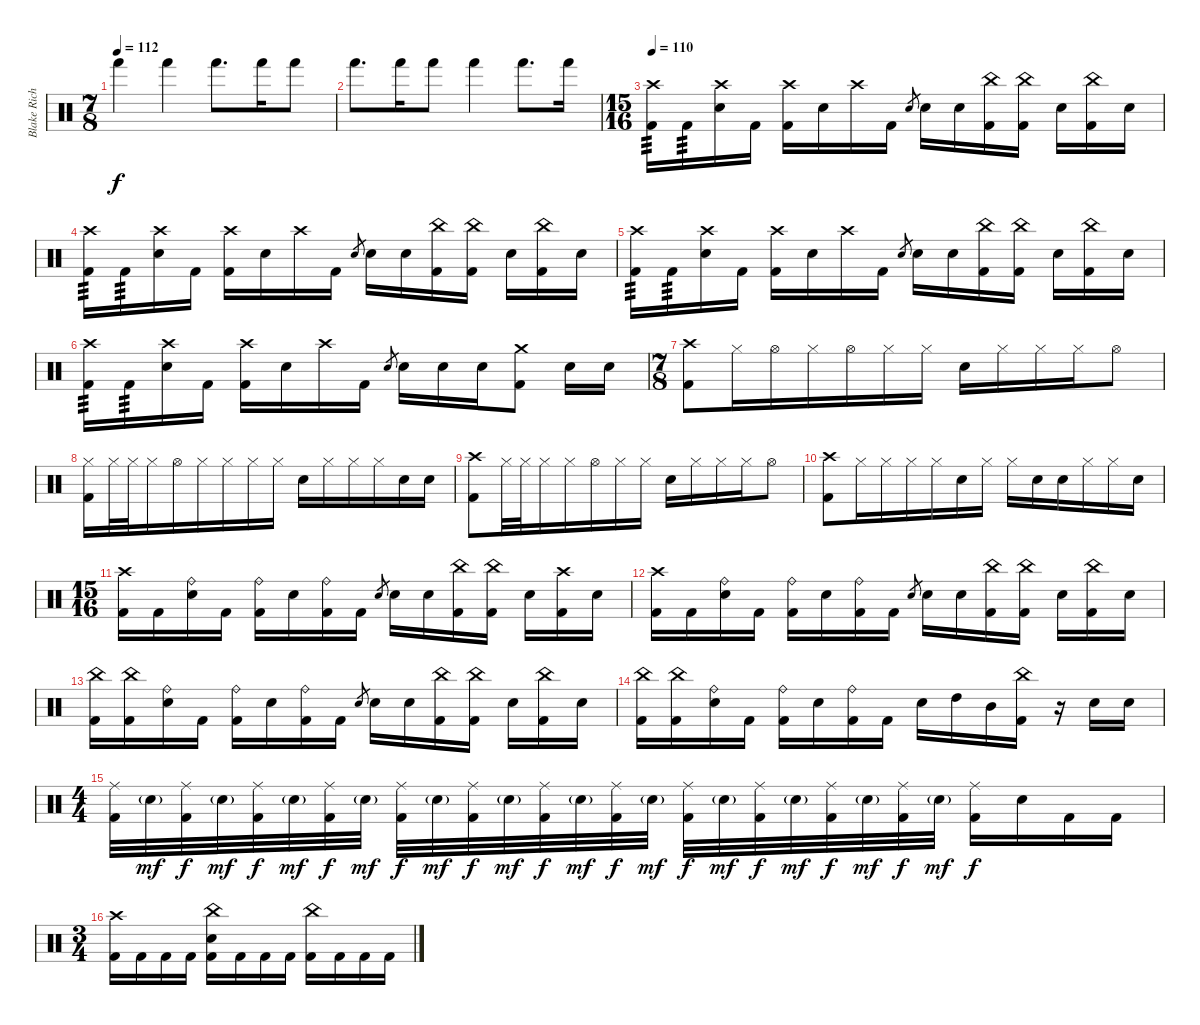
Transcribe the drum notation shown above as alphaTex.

\track ("Blake Richardson" "Blake Rich") {instrument percussion}
\staff {score}
\articulation defaults
\ts (7 8)
\tempo 112
\clef neutral
\ks c "Hand (hit)".4{dy f} "Hand (hit)".4 "Hand (hit)".8{d} "Hand (hit)".16 "Hand (hit)".8
|
"Hand (hit)".8{d} "Hand (hit)".16 "Hand (hit)".8 "Hand (hit)".4 "Hand (hit)".8{d} "Hand (hit)".16 |
\ts (15 16)
\tempo 110
("Crash high (hit)" "Kick (hit) 2").16{tp 3} "Kick (hit) 2".16{tp 3} ("Crash high (hit)" "Electric Snare (hit)").16 "Kick (hit) 2".16 ("Crash high (hit)" "Kick (hit) 2").16 "Electric Snare (hit)".16 "Crash high (hit)".16 "Kick (hit) 2".16 "Electric Snare (hit)".8{gr} "Electric Snare (hit)".16 "Electric Snare (hit)".16 ("China (hit)" "Kick (hit) 2").16 ("China (hit)" "Kick (hit) 2").16 "Electric Snare (hit)".16 ("China (hit)" "Kick (hit) 2").16 "Electric Snare (hit)".16 |
("Crash high (hit)" "Kick (hit) 2").16{tp 3} "Kick (hit) 2".16{tp 3} ("Crash high (hit)" "Electric Snare (hit)").16 "Kick (hit) 2".16 ("Crash high (hit)" "Kick (hit) 2").16 "Electric Snare (hit)".16 "Crash high (hit)".16 "Kick (hit) 2".16 "Electric Snare (hit)".8{gr} "Electric Snare (hit)".16 "Electric Snare (hit)".16 ("China (hit)" "Kick (hit) 2").16 ("China (hit)" "Kick (hit) 2").16 "Electric Snare (hit)".16 ("China (hit)" "Kick (hit) 2").16 "Electric Snare (hit)".16 |
("Crash high (hit)" "Kick (hit) 2").16{tp 3} "Kick (hit) 2".16{tp 3} ("Crash high (hit)" "Electric Snare (hit)").16 "Kick (hit) 2".16 ("Crash high (hit)" "Kick (hit) 2").16 "Electric Snare (hit)".16 "Crash high (hit)".16 "Kick (hit) 2".16 "Electric Snare (hit)".8{gr} "Electric Snare (hit)".16 "Electric Snare (hit)".16 ("China (hit)" "Kick (hit) 2").16 ("China (hit)" "Kick (hit) 2").16 "Electric Snare (hit)".16 ("China (hit)" "Kick (hit) 2").16 "Electric Snare (hit)".16 |
("Crash high (hit)" "Kick (hit) 2").16{tp 3} "Kick (hit) 2".16{tp 3} ("Crash high (hit)" "Electric Snare (hit)").16 "Kick (hit) 2".16 ("Crash high (hit)" "Kick (hit) 2").16 "Electric Snare (hit)".16 "Crash high (hit)".16 "Kick (hit) 2".16 "Electric Snare (hit)".8{gr} "Electric Snare (hit)".16 "Electric Snare (hit)".16 "Electric Snare (hit)".16 ("Crash medium (hit)" "Kick (hit) 2").8 "Electric Snare (hit)".16 "Electric Snare (hit)".16 |
\ts (7 8)
("Crash high (hit)" "Kick (hit) 2").8 "Hi-Hat (closed)".16 "Hi-Hat (open)".16 "Hi-Hat (closed)".16 "Hi-Hat (open)".16 "Hi-Hat (closed)".16 "Hi-Hat (closed)".16 "Electric Snare (hit)".16 "Hi-Hat (closed)".16 "Hi-Hat (closed)".16 "Hi-Hat (closed)".16 "Hi-Hat (open)".8 |
("Hi-Hat (closed)" "Kick (hit) 2").16 "Hi-Hat (closed)".32 "Hi-Hat (closed)".32 "Hi-Hat (closed)".16 "Hi-Hat (open)".16 "Hi-Hat (closed)".16 "Hi-Hat (closed)".16 "Hi-Hat (closed)".16 "Hi-Hat (closed)".16 "Electric Snare (hit)".16 "Hi-Hat (closed)".16 "Hi-Hat (closed)".16 "Hi-Hat (closed)".16 "Electric Snare (hit)".16 "Electric Snare (hit)".16 |
("Crash high (hit)" "Kick (hit) 2").8 "Hi-Hat (closed)".32 "Hi-Hat (closed)".32 "Hi-Hat (closed)".16 "Hi-Hat (closed)".16 "Hi-Hat (open)".16 "Hi-Hat (closed)".16 "Hi-Hat (closed)".16 "Electric Snare (hit)".16 "Hi-Hat (closed)".16 "Hi-Hat (closed)".16 "Hi-Hat (closed)".16 "Hi-Hat (open)".8 |
("Crash high (hit)" "Kick (hit) 2").8 "Hi-Hat (closed)".16 "Hi-Hat (closed)".16 "Hi-Hat (closed)".16 "Hi-Hat (closed)".16 "Electric Snare (hit)".16 "Hi-Hat (closed)".16 "Hi-Hat (closed)".16 "Electric Snare (hit)".16 "Electric Snare (hit)".16 "Hi-Hat (closed)".16 "Hi-Hat (closed)".16 "Electric Snare (hit)".16 |
\ts (15 16)
("Crash high (hit)" "Kick (hit) 2").16 "Kick (hit) 2".16 ("Ride (bell)" "Electric Snare (hit)").16 "Kick (hit) 2".16 ("Ride (bell)" "Kick (hit) 2").16 "Electric Snare (hit)".16 ("Ride (bell)" "Kick (hit) 2").16 "Kick (hit) 2".16 "Electric Snare (hit)".8{gr} "Electric Snare (hit)".16 "Electric Snare (hit)".16 ("China (hit)" "Kick (hit) 2").16 ("China (hit)" "Kick (hit) 2").16 "Electric Snare (hit)".16 ("Crash high (hit)" "Kick (hit) 2").16 "Electric Snare (hit)".16 |
("Crash high (hit)" "Kick (hit) 2").16 "Kick (hit) 2".16 ("Ride (bell)" "Electric Snare (hit)").16 "Kick (hit) 2".16 ("Ride (bell)" "Kick (hit) 2").16 "Electric Snare (hit)".16 ("Ride (bell)" "Kick (hit) 2").16 "Kick (hit) 2".16 "Electric Snare (hit)".8{gr} "Electric Snare (hit)".16 "Electric Snare (hit)".16 ("China (hit)" "Kick (hit) 2").16 ("China (hit)" "Kick (hit) 2").16 "Electric Snare (hit)".16 ("China (hit)" "Kick (hit) 2").16 "Electric Snare (hit)".16 |
("China (hit)" "Kick (hit) 2").16 ("China (hit)" "Kick (hit) 2").16 ("Ride (bell)" "Electric Snare (hit)").16 "Kick (hit) 2".16 ("Ride (bell)" "Kick (hit) 2").16 "Electric Snare (hit)".16 ("Ride (bell)" "Kick (hit) 2").16 "Kick (hit) 2".16 "Electric Snare (hit)".8{gr} "Electric Snare (hit)".16 "Electric Snare (hit)".16 ("China (hit)" "Kick (hit) 2").16 ("China (hit)" "Kick (hit) 2").16 "Electric Snare (hit)".16 ("China (hit)" "Kick (hit) 2").16 "Electric Snare (hit)".16 |
("China (hit)" "Kick (hit) 2").16 ("China (hit)" "Kick (hit) 2").16 ("Ride (bell)" "Electric Snare (hit)").16 "Kick (hit) 2".16 ("Ride (bell)" "Kick (hit) 2").16 "Electric Snare (hit)".16 ("Ride (bell)" "Kick (hit) 2").16 "Kick (hit) 2".16 "Electric Snare (hit)".16 "High Tom (hit)".16 "Mid Tom (hit)".16 ("China (hit)" "Kick (hit) 2").16 r.16 "Electric Snare (hit)".16 "Electric Snare (hit)".16 |
\ts (4 4)
("Ride (middle)" "Kick (hit) 2").32 "Electric Snare (hit)"{g}.32{dy mf} ("Ride (middle)" "Kick (hit) 2").32{dy f} "Electric Snare (hit)"{g}.32{dy mf} ("Ride (middle)" "Kick (hit) 2").32{dy f} "Electric Snare (hit)"{g}.32{dy mf} ("Ride (middle)" "Kick (hit) 2").32{dy f} "Electric Snare (hit)"{g}.32{dy mf} ("Ride (middle)" "Kick (hit) 2").32{dy f} "Electric Snare (hit)"{g}.32{dy mf} ("Ride (middle)" "Kick (hit) 2").32{dy f} "Electric Snare (hit)"{g}.32{dy mf} ("Ride (middle)" "Kick (hit) 2").32{dy f} "Electric Snare (hit)"{g}.32{dy mf} ("Ride (middle)" "Kick (hit) 2").32{dy f} "Electric Snare (hit)"{g}.32{dy mf} ("Ride (middle)" "Kick (hit) 2").32{dy f} "Electric Snare (hit)"{g}.32{dy mf} ("Ride (middle)" "Kick (hit) 2").32{dy f} "Electric Snare (hit)"{g}.32{dy mf} ("Ride (middle)" "Kick (hit) 2").32{dy f} "Electric Snare (hit)"{g}.32{dy mf} ("Ride (middle)" "Kick (hit) 2").32{dy f} "Electric Snare (hit)"{g}.32{dy mf} ("Ride (middle)" "Kick (hit) 2").16{dy f} "Electric Snare (hit)".16 "Kick (hit) 2".16 "Kick (hit) 2".16 |
\ts (3 4)
("Crash high (hit)" "Kick (hit) 2").16 "Kick (hit) 2".16 "Kick (hit) 2".16 "Kick (hit) 2".16 ("China (hit)" "Electric Snare (hit)" "Kick (hit) 2").16 "Kick (hit) 2".16 "Kick (hit) 2".16 "Kick (hit) 2".16 ("China (hit)" "Kick (hit) 2").16 "Kick (hit) 2".16 "Kick (hit) 2".16 "Kick (hit) 2".16
